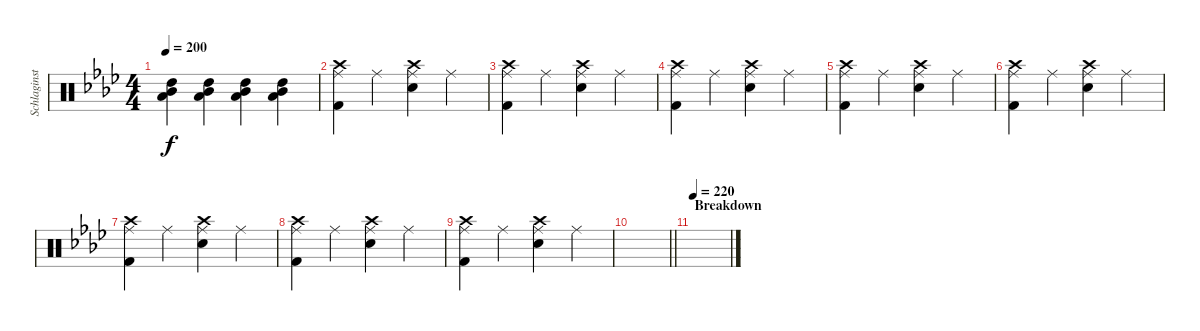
\track ("Schlaginstrumente - Auswahl" "Schlaginst") {instrument percussion}
\staff {score}
\articulation defaults
\ts (4 4)
\tempo 200
\clef neutral
\ks fminor
("Mid Tom (hit)" "Low Floor Tom (hit)" "High Tom (hit)").4{dy f} ("Mid Tom (hit)" "Low Floor Tom (hit)" "High Tom (hit)").4 ("Mid Tom (hit)" "Low Floor Tom (hit)" "High Tom (hit)").4 ("Mid Tom (hit)" "Low Floor Tom (hit)" "High Tom (hit)").4 |
("Kick (hit) 2" "Ride (middle)" "Crash high (hit)").4 "Ride (middle)".4 ("Ride (middle)" "Snare (hit) 2" "Crash high (hit)").4 "Ride (middle)".4 |
("Kick (hit) 2" "Ride (middle)" "Crash high (hit)").4 "Ride (middle)".4 ("Ride (middle)" "Snare (hit) 2" "Crash high (hit)").4 "Ride (middle)".4 |
("Kick (hit) 2" "Ride (middle)" "Crash high (hit)").4 "Ride (middle)".4 ("Ride (middle)" "Snare (hit) 2" "Crash high (hit)").4 "Ride (middle)".4 |
("Kick (hit) 2" "Ride (middle)" "Crash high (hit)").4 "Ride (middle)".4 ("Ride (middle)" "Snare (hit) 2" "Crash high (hit)").4 "Ride (middle)".4 |
("Kick (hit) 2" "Ride (middle)" "Crash high (hit)").4 "Ride (middle)".4 ("Ride (middle)" "Snare (hit) 2" "Crash high (hit)").4 "Ride (middle)".4 |
("Kick (hit) 2" "Ride (middle)" "Crash high (hit)").4 "Ride (middle)".4 ("Ride (middle)" "Snare (hit) 2" "Crash high (hit)").4 "Ride (middle)".4 |
("Kick (hit) 2" "Ride (middle)" "Crash high (hit)").4 "Ride (middle)".4 ("Ride (middle)" "Snare (hit) 2" "Crash high (hit)").4 "Ride (middle)".4 |
("Kick (hit) 2" "Ride (middle)" "Crash high (hit)").4 "Ride (middle)".4 ("Ride (middle)" "Snare (hit) 2" "Crash high (hit)").4 "Ride (middle)".4 |
\barLineRight lightlight
|
\section ("" "Breakdown")
\tempo 220
